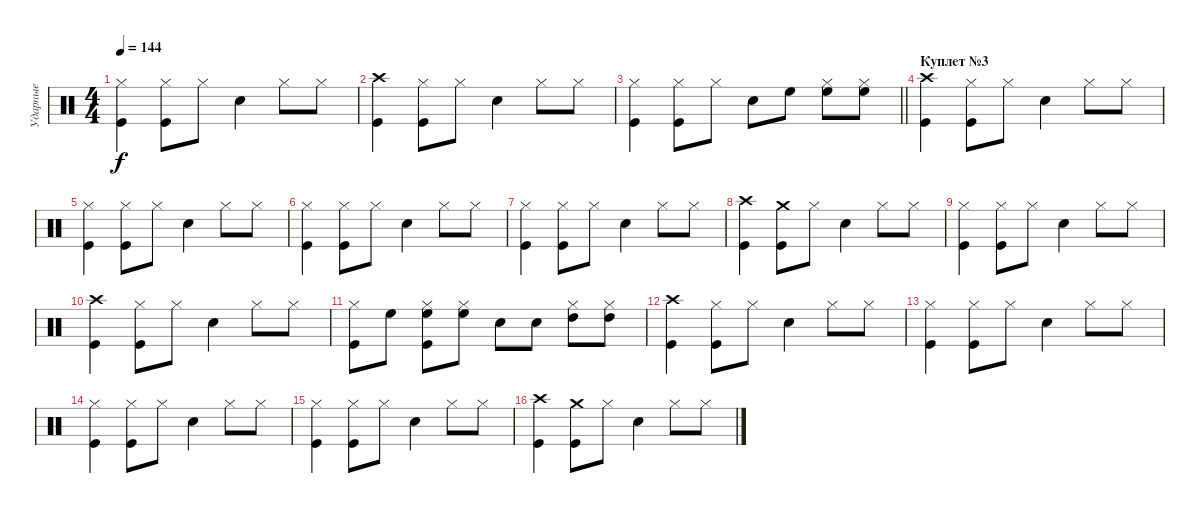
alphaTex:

\track ("Ударные" "Ударные") {instrument percussion}
\staff {score}
\articulation defaults
\ts (4 4)
\tempo 144
\clef neutral
\ks c
("Hi-Hat (closed)" "Kick (hit)").4{dy f} ("Hi-Hat (closed)" "Kick (hit)").8 "Hi-Hat (closed)".8 "Snare (hit) 2".4 "Hi-Hat (closed)".8 "Hi-Hat (closed)".8 |
("Crash high (hit)" "Kick (hit)").4 ("Hi-Hat (closed)" "Kick (hit)").8 "Hi-Hat (closed)".8 "Snare (hit) 2".4 "Hi-Hat (closed)".8 "Hi-Hat (closed)".8 |
\barLineRight lightlight
("Hi-Hat (closed)" "Kick (hit)").4 ("Hi-Hat (closed)" "Kick (hit)").8 "Hi-Hat (closed)".8 "Snare (hit) 2".8 "High Floor Tom (hit)".8 ("Hi-Hat (closed)" "High Floor Tom (hit)").8 ("Hi-Hat (closed)" "High Floor Tom (hit)").8 |
\section ("" "Куплет №3")
("Crash high (hit)" "Kick (hit)").4 ("Hi-Hat (closed)" "Kick (hit)").8 "Hi-Hat (closed)".8 "Snare (hit) 2".4 "Hi-Hat (closed)".8 "Hi-Hat (closed)".8 |
("Hi-Hat (closed)" "Kick (hit)").4 ("Hi-Hat (closed)" "Kick (hit)").8 "Hi-Hat (closed)".8 "Snare (hit) 2".4 "Hi-Hat (closed)".8 "Hi-Hat (closed)".8 |
("Hi-Hat (closed)" "Kick (hit)").4 ("Hi-Hat (closed)" "Kick (hit)").8 "Hi-Hat (closed)".8 "Snare (hit) 2".4 "Hi-Hat (closed)".8 "Hi-Hat (closed)".8 |
("Hi-Hat (closed)" "Kick (hit)").4 ("Hi-Hat (closed)" "Kick (hit)").8 "Hi-Hat (closed)".8 "Snare (hit) 2".4 "Hi-Hat (closed)".8 "Hi-Hat (closed)".8 |
("Crash high (hit)" "Kick (hit)").4 ("Crash medium (hit)" "Kick (hit)").8 "Hi-Hat (closed)".8 "Snare (hit) 2".4 "Hi-Hat (closed)".8 "Hi-Hat (closed)".8 |
("Hi-Hat (closed)" "Kick (hit)").4 ("Hi-Hat (closed)" "Kick (hit)").8 "Hi-Hat (closed)".8 "Snare (hit) 2".4 "Hi-Hat (closed)".8 "Hi-Hat (closed)".8 |
("Crash high (hit)" "Kick (hit)").4 ("Hi-Hat (closed)" "Kick (hit)").8 "Hi-Hat (closed)".8 "Snare (hit) 2".4 "Hi-Hat (closed)".8 "Hi-Hat (closed)".8 |
("Hi-Hat (closed)" "Kick (hit)").8 "High Floor Tom (hit)".8 ("Hi-Hat (closed)" "High Floor Tom (hit)" "Kick (hit)").8 ("Hi-Hat (closed)" "High Floor Tom (hit)").8 "Snare (hit) 2".8 "Snare (hit) 2".8 ("Hi-Hat (closed)" "High Tom (hit)").8 ("Hi-Hat (closed)" "High Tom (hit)").8 |
("Crash high (hit)" "Kick (hit)").4 ("Hi-Hat (closed)" "Kick (hit)").8 "Hi-Hat (closed)".8 "Snare (hit) 2".4 "Hi-Hat (closed)".8 "Hi-Hat (closed)".8 |
("Hi-Hat (closed)" "Kick (hit)").4 ("Hi-Hat (closed)" "Kick (hit)").8 "Hi-Hat (closed)".8 "Snare (hit) 2".4 "Hi-Hat (closed)".8 "Hi-Hat (closed)".8 |
("Hi-Hat (closed)" "Kick (hit)").4 ("Hi-Hat (closed)" "Kick (hit)").8 "Hi-Hat (closed)".8 "Snare (hit) 2".4 "Hi-Hat (closed)".8 "Hi-Hat (closed)".8 |
("Hi-Hat (closed)" "Kick (hit)").4 ("Hi-Hat (closed)" "Kick (hit)").8 "Hi-Hat (closed)".8 "Snare (hit) 2".4 "Hi-Hat (closed)".8 "Hi-Hat (closed)".8 |
("Crash high (hit)" "Kick (hit)").4 ("Crash medium (hit)" "Kick (hit)").8 "Hi-Hat (closed)".8 "Snare (hit) 2".4 "Hi-Hat (closed)".8 "Hi-Hat (closed)".8
